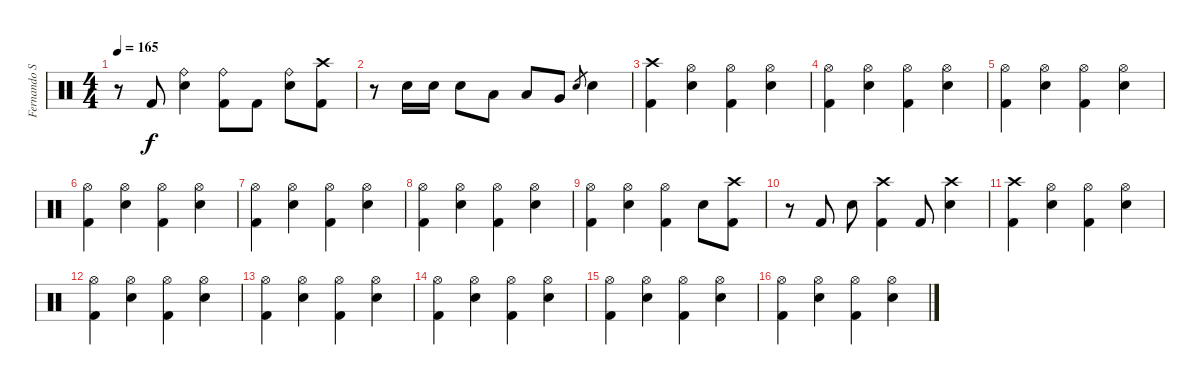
\track ("Fernando Scarcella" "Fernando S") {instrument percussion}
\staff {score}
\articulation defaults
\ts (4 4)
\tempo 165
\clef neutral
\ks c
r.8{dy f} "Kick (hit) 2".8 ("Ride (bell)" "Snare (hit) 2").4 ("Ride (bell)" "Kick (hit) 2").8 "Kick (hit) 2".8 ("Ride (bell)" "Snare (hit) 2").8 ("Crash high (hit)" "Kick (hit) 2").8 |
r.8 "Snare (hit) 2".16 "Snare (hit) 2".16 "Snare (hit) 2".8 "Low Tom (hit)".8 "Low Tom (hit)".8 "Very Low Tom (hit)".8 "Snare (hit) 2".8{gr} "Snare (hit) 2".4 |
("Crash high (hit)" "Kick (hit) 2").4 ("Hi-Hat (open)" "Snare (hit) 2").4 ("Hi-Hat (open)" "Kick (hit) 2").4 ("Hi-Hat (open)" "Snare (hit) 2").4 |
("Hi-Hat (open)" "Kick (hit) 2").4 ("Hi-Hat (open)" "Snare (hit) 2").4 ("Hi-Hat (open)" "Kick (hit) 2").4 ("Hi-Hat (open)" "Snare (hit) 2").4 |
("Hi-Hat (open)" "Kick (hit) 2").4 ("Hi-Hat (open)" "Snare (hit) 2").4 ("Hi-Hat (open)" "Kick (hit) 2").4 ("Hi-Hat (open)" "Snare (hit) 2").4 |
("Hi-Hat (open)" "Kick (hit) 2").4 ("Hi-Hat (open)" "Snare (hit) 2").4 ("Hi-Hat (open)" "Kick (hit) 2").4 ("Hi-Hat (open)" "Snare (hit) 2").4 |
("Hi-Hat (open)" "Kick (hit) 2").4 ("Hi-Hat (open)" "Snare (hit) 2").4 ("Hi-Hat (open)" "Kick (hit) 2").4 ("Hi-Hat (open)" "Snare (hit) 2").4 |
("Hi-Hat (open)" "Kick (hit) 2").4 ("Hi-Hat (open)" "Snare (hit) 2").4 ("Hi-Hat (open)" "Kick (hit) 2").4 ("Hi-Hat (open)" "Snare (hit) 2").4 |
("Hi-Hat (open)" "Kick (hit) 2").4 ("Hi-Hat (open)" "Snare (hit) 2").4 ("Hi-Hat (open)" "Kick (hit) 2").4 "Snare (hit) 2".8 ("Crash high (hit)" "Kick (hit) 2").8 |
r.8 "Kick (hit) 2".8 "Snare (hit) 2".8 ("Crash high (hit)" "Kick (hit) 2").4 "Kick (hit) 2".8 ("Crash high (hit)" "Snare (hit) 2").4 |
("Crash high (hit)" "Kick (hit) 2").4 ("Hi-Hat (open)" "Snare (hit) 2").4 ("Hi-Hat (open)" "Kick (hit) 2").4 ("Hi-Hat (open)" "Snare (hit) 2").4 |
("Hi-Hat (open)" "Kick (hit) 2").4 ("Hi-Hat (open)" "Snare (hit) 2").4 ("Hi-Hat (open)" "Kick (hit) 2").4 ("Hi-Hat (open)" "Snare (hit) 2").4 |
("Hi-Hat (open)" "Kick (hit) 2").4 ("Hi-Hat (open)" "Snare (hit) 2").4 ("Hi-Hat (open)" "Kick (hit) 2").4 ("Hi-Hat (open)" "Snare (hit) 2").4 |
("Hi-Hat (open)" "Kick (hit) 2").4 ("Hi-Hat (open)" "Snare (hit) 2").4 ("Hi-Hat (open)" "Kick (hit) 2").4 ("Hi-Hat (open)" "Snare (hit) 2").4 |
("Hi-Hat (open)" "Kick (hit) 2").4 ("Hi-Hat (open)" "Snare (hit) 2").4 ("Hi-Hat (open)" "Kick (hit) 2").4 ("Hi-Hat (open)" "Snare (hit) 2").4 |
("Hi-Hat (open)" "Kick (hit) 2").4 ("Hi-Hat (open)" "Snare (hit) 2").4 ("Hi-Hat (open)" "Kick (hit) 2").4 ("Hi-Hat (open)" "Snare (hit) 2").4
